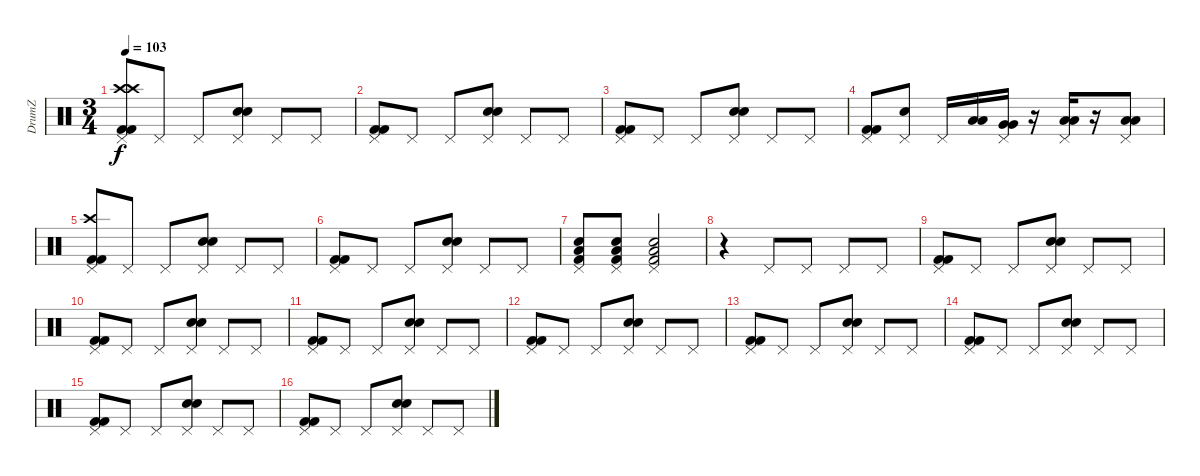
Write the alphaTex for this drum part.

\track ("DrumZ" "DrumZ") {instrument percussion}
\staff {score}
\articulation defaults
\ts (3 4)
\tempo 103
\clef neutral
\ks c
("Pedal Hi-Hat (hit)" "Crash high (hit)" "Kick (hit) 2" "Kick (hit) 2" "Crash high (hit)").8{dy f} "Pedal Hi-Hat (hit)".8 "Pedal Hi-Hat (hit)".8 ("Pedal Hi-Hat (hit)" "Electric Snare (hit)" "Electric Snare (hit)").8 "Pedal Hi-Hat (hit)".8 "Pedal Hi-Hat (hit)".8 |
("Pedal Hi-Hat (hit)" "Kick (hit) 2" "Kick (hit) 2").8 "Pedal Hi-Hat (hit)".8 "Pedal Hi-Hat (hit)".8 ("Pedal Hi-Hat (hit)" "Electric Snare (hit)" "Electric Snare (hit)").8 "Pedal Hi-Hat (hit)".8 "Pedal Hi-Hat (hit)".8 |
("Pedal Hi-Hat (hit)" "Kick (hit) 2" "Kick (hit) 2").8 "Pedal Hi-Hat (hit)".8 "Pedal Hi-Hat (hit)".8 ("Pedal Hi-Hat (hit)" "Electric Snare (hit)" "Electric Snare (hit)").8 "Pedal Hi-Hat (hit)".8 "Pedal Hi-Hat (hit)".8 |
("Pedal Hi-Hat (hit)" "Kick (hit) 2" "Kick (hit) 2").8 ("Pedal Hi-Hat (hit)" "Snare (hit) 2").8 "Pedal Hi-Hat (hit)".16 ("Low Floor Tom (hit)" "Low Floor Tom (hit)").16 ("Pedal Hi-Hat (hit)" "Very Low Tom (hit)" "Very Low Tom (hit)").16 r.16 ("Pedal Hi-Hat (hit)" "Low Floor Tom (hit)" "Low Floor Tom (hit)").16 r.16 ("Pedal Hi-Hat (hit)" "Low Floor Tom (hit)" "Low Floor Tom (hit)").8 |
("Pedal Hi-Hat (hit)" "Crash high (hit)" "Kick (hit) 2" "Kick (hit) 2").8 "Pedal Hi-Hat (hit)".8 "Pedal Hi-Hat (hit)".8 ("Pedal Hi-Hat (hit)" "Electric Snare (hit)" "Electric Snare (hit)").8 "Pedal Hi-Hat (hit)".8 "Pedal Hi-Hat (hit)".8 |
("Pedal Hi-Hat (hit)" "Kick (hit) 2" "Kick (hit) 2").8 "Pedal Hi-Hat (hit)".8 "Pedal Hi-Hat (hit)".8 ("Pedal Hi-Hat (hit)" "Electric Snare (hit)" "Electric Snare (hit)").8 "Pedal Hi-Hat (hit)".8 "Pedal Hi-Hat (hit)".8 |
("Low Tom (hit)" "Pedal Hi-Hat (hit)" "Snare (hit) 2" "Kick (hit) 2").8 ("Low Tom (hit)" "Pedal Hi-Hat (hit)" "Snare (hit) 2" "Kick (hit) 2").8 ("Low Tom (hit)" "Pedal Hi-Hat (hit)" "Snare (hit) 2" "Kick (hit) 2").2 |
r.4 "Pedal Hi-Hat (hit)".8 "Pedal Hi-Hat (hit)".8 "Pedal Hi-Hat (hit)".8 "Pedal Hi-Hat (hit)".8 |
("Pedal Hi-Hat (hit)" "Kick (hit) 2" "Kick (hit) 2").8 "Pedal Hi-Hat (hit)".8 "Pedal Hi-Hat (hit)".8 ("Pedal Hi-Hat (hit)" "Electric Snare (hit)" "Electric Snare (hit)").8 "Pedal Hi-Hat (hit)".8 "Pedal Hi-Hat (hit)".8 |
("Pedal Hi-Hat (hit)" "Kick (hit) 2" "Kick (hit) 2").8 "Pedal Hi-Hat (hit)".8 "Pedal Hi-Hat (hit)".8 ("Pedal Hi-Hat (hit)" "Electric Snare (hit)" "Electric Snare (hit)").8 "Pedal Hi-Hat (hit)".8 "Pedal Hi-Hat (hit)".8 |
("Pedal Hi-Hat (hit)" "Kick (hit) 2" "Kick (hit) 2").8 "Pedal Hi-Hat (hit)".8 "Pedal Hi-Hat (hit)".8 ("Pedal Hi-Hat (hit)" "Electric Snare (hit)" "Electric Snare (hit)").8 "Pedal Hi-Hat (hit)".8 "Pedal Hi-Hat (hit)".8 |
("Pedal Hi-Hat (hit)" "Kick (hit) 2" "Kick (hit) 2").8 "Pedal Hi-Hat (hit)".8 "Pedal Hi-Hat (hit)".8 ("Pedal Hi-Hat (hit)" "Electric Snare (hit)" "Electric Snare (hit)").8 "Pedal Hi-Hat (hit)".8 "Pedal Hi-Hat (hit)".8 |
("Pedal Hi-Hat (hit)" "Kick (hit) 2" "Kick (hit) 2").8 "Pedal Hi-Hat (hit)".8 "Pedal Hi-Hat (hit)".8 ("Pedal Hi-Hat (hit)" "Electric Snare (hit)" "Electric Snare (hit)").8 "Pedal Hi-Hat (hit)".8 "Pedal Hi-Hat (hit)".8 |
("Pedal Hi-Hat (hit)" "Kick (hit) 2" "Kick (hit) 2").8 "Pedal Hi-Hat (hit)".8 "Pedal Hi-Hat (hit)".8 ("Pedal Hi-Hat (hit)" "Electric Snare (hit)" "Electric Snare (hit)").8 "Pedal Hi-Hat (hit)".8 "Pedal Hi-Hat (hit)".8 |
("Pedal Hi-Hat (hit)" "Kick (hit) 2" "Kick (hit) 2").8 "Pedal Hi-Hat (hit)".8 "Pedal Hi-Hat (hit)".8 ("Pedal Hi-Hat (hit)" "Electric Snare (hit)" "Electric Snare (hit)").8 "Pedal Hi-Hat (hit)".8 "Pedal Hi-Hat (hit)".8 |
("Pedal Hi-Hat (hit)" "Kick (hit) 2" "Kick (hit) 2").8 "Pedal Hi-Hat (hit)".8 "Pedal Hi-Hat (hit)".8 ("Pedal Hi-Hat (hit)" "Electric Snare (hit)" "Electric Snare (hit)").8 "Pedal Hi-Hat (hit)".8 "Pedal Hi-Hat (hit)".8
